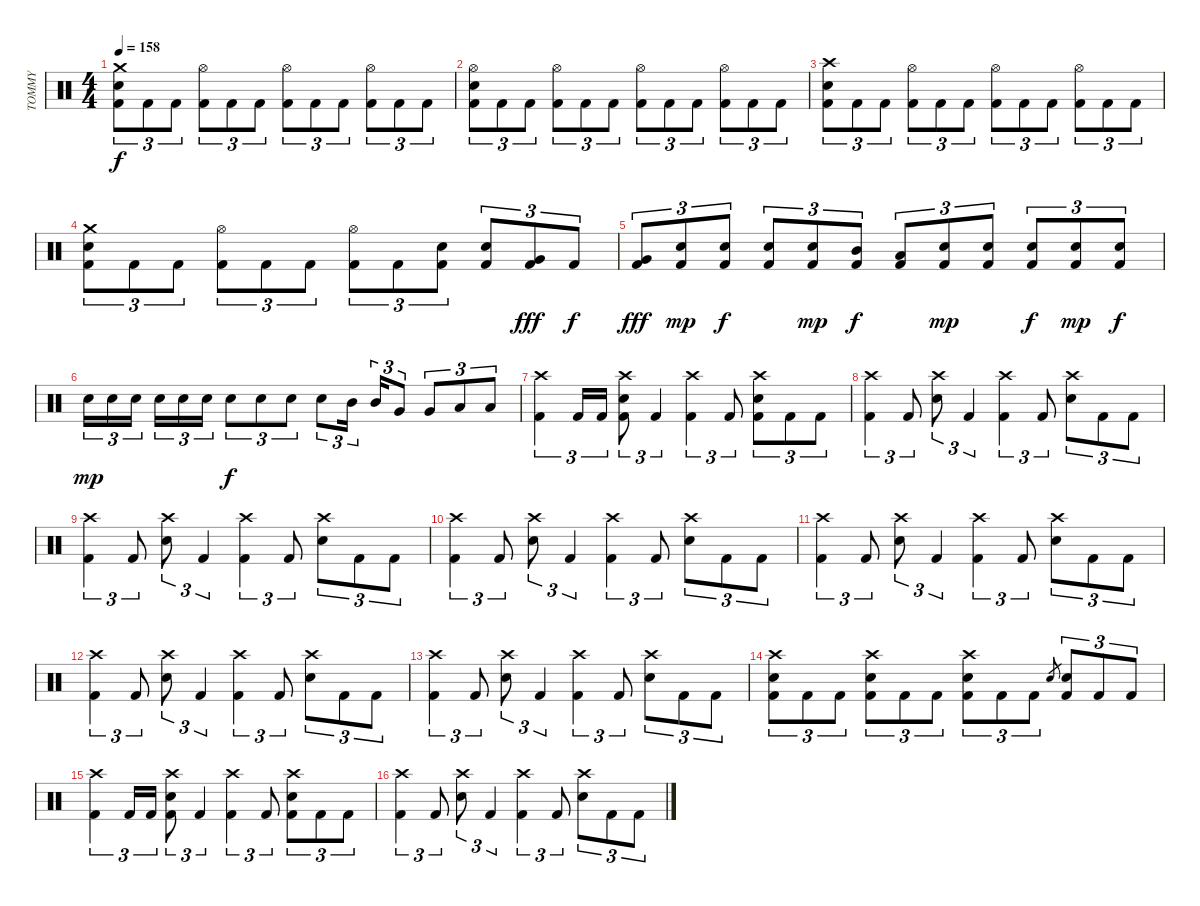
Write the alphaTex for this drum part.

\track ("TOMMY" "TOMMY") {instrument percussion}
\staff {score}
\articulation defaults
\ts (4 4)
\tempo 158
\clef neutral
\ks c
("Snare (hit) 2" "Kick (hit) 2" "Crash medium (hit)").8{tu (3 2) dy f} "Kick (hit) 2".8{tu (3 2)} "Kick (hit) 2".8{tu (3 2)} ("Kick (hit) 2" "Hi-Hat (open)").8{tu (3 2)} "Kick (hit) 2".8{tu (3 2)} "Kick (hit) 2".8{tu (3 2)} ("Kick (hit) 2" "Hi-Hat (open)").8{tu (3 2)} "Kick (hit) 2".8{tu (3 2)} "Kick (hit) 2".8{tu (3 2)} ("Kick (hit) 2" "Hi-Hat (open)").8{tu (3 2)} "Kick (hit) 2".8{tu (3 2)} "Kick (hit) 2".8{tu (3 2)} |
("Snare (hit) 2" "Kick (hit) 2" "Hi-Hat (open)").8{tu (3 2)} "Kick (hit) 2".8{tu (3 2)} "Kick (hit) 2".8{tu (3 2)} ("Kick (hit) 2" "Hi-Hat (open)").8{tu (3 2)} "Kick (hit) 2".8{tu (3 2)} "Kick (hit) 2".8{tu (3 2)} ("Kick (hit) 2" "Hi-Hat (open)").8{tu (3 2)} "Kick (hit) 2".8{tu (3 2)} "Kick (hit) 2".8{tu (3 2)} ("Kick (hit) 2" "Hi-Hat (open)").8{tu (3 2)} "Kick (hit) 2".8{tu (3 2)} "Kick (hit) 2".8{tu (3 2)} |
("Snare (hit) 2" "Kick (hit) 2" "Crash high (hit)").8{tu (3 2)} "Kick (hit) 2".8{tu (3 2)} "Kick (hit) 2".8{tu (3 2)} ("Kick (hit) 2" "Hi-Hat (open)").8{tu (3 2)} "Kick (hit) 2".8{tu (3 2)} "Kick (hit) 2".8{tu (3 2)} ("Kick (hit) 2" "Hi-Hat (open)").8{tu (3 2)} "Kick (hit) 2".8{tu (3 2)} "Kick (hit) 2".8{tu (3 2)} ("Kick (hit) 2" "Hi-Hat (open)").8{tu (3 2)} "Kick (hit) 2".8{tu (3 2)} "Kick (hit) 2".8{tu (3 2)} |
("Snare (hit) 2" "Kick (hit) 2" "Crash medium (hit)").8{tu (3 2)} "Kick (hit) 2".8{tu (3 2)} "Kick (hit) 2".8{tu (3 2)} ("Kick (hit) 2" "Hi-Hat (open)").8{tu (3 2)} "Kick (hit) 2".8{tu (3 2)} "Kick (hit) 2".8{tu (3 2)} ("Kick (hit) 2" "Hi-Hat (open)").8{tu (3 2)} "Kick (hit) 2".8{tu (3 2)} ("Snare (hit) 2" "Kick (hit) 2").8{tu (3 2)} ("Snare (hit) 2" "Kick (hit) 2").8{tu (3 2)} ("Kick (hit) 2" "Very Low Tom (hit)").8{tu (3 2) dy fff} "Kick (hit) 2".8{tu (3 2) dy f} |
("Kick (hit) 2" "Very Low Tom (hit)").8{tu (3 2) dy fff} ("Snare (hit) 2" "Kick (hit) 2").8{tu (3 2) dy mp} ("Snare (hit) 2" "Kick (hit) 2").8{tu (3 2) dy f} ("Snare (hit) 2" "Kick (hit) 2").8{tu (3 2)} ("Snare (hit) 2" "Kick (hit) 2").8{tu (3 2) dy mp} ("Kick (hit) 2" "Mid Tom (hit)").8{tu (3 2) dy f} ("Kick (hit) 2" "Low Floor Tom (hit)").8{tu (3 2)} ("Snare (hit) 2" "Kick (hit) 2").8{tu (3 2) dy mp} ("Snare (hit) 2" "Kick (hit) 2").8{tu (3 2)} ("Snare (hit) 2" "Kick (hit) 2").8{tu (3 2) dy f} ("Snare (hit) 2" "Kick (hit) 2").8{tu (3 2) dy mp} ("Snare (hit) 2" "Kick (hit) 2").8{tu (3 2) dy f} |
"Snare (hit) 2".16{tu (3 2) dy mp} "Snare (hit) 2".16{tu (3 2)} "Snare (hit) 2".16{tu (3 2)} "Snare (hit) 2".16{tu (3 2)} "Snare (hit) 2".16{tu (3 2)} "Snare (hit) 2".16{tu (3 2)} "Snare (hit) 2".8{tu (3 2) dy f} "Snare (hit) 2".8{tu (3 2)} "Snare (hit) 2".8{tu (3 2)} "Snare (hit) 2".8{tu (3 2)} "Mid Tom (hit)".16{tu (3 2)} "Mid Tom (hit)".16{tu (3 2)} "Very Low Tom (hit)".8{tu (3 2)} "Very Low Tom (hit)".8{tu (3 2)} "Low Floor Tom (hit)".8{tu (3 2)} "Low Floor Tom (hit)".8{tu (3 2)} |
("Kick (hit) 2" "Crash high (hit)").4{tu (3 2)} "Kick (hit) 2".16{tu (3 2)} "Kick (hit) 2".16{tu (3 2)} ("Snare (hit) 2" "Kick (hit) 2" "Crash high (hit)").8{tu (3 2)} "Kick (hit) 2".4{tu (3 2)} ("Kick (hit) 2" "Crash high (hit)").4{tu (3 2)} "Kick (hit) 2".8{tu (3 2)} ("Snare (hit) 2" "Kick (hit) 2" "Crash high (hit)").8{tu (3 2)} "Kick (hit) 2".8{tu (3 2)} "Kick (hit) 2".8{tu (3 2)} |
("Kick (hit) 2" "Crash high (hit)").4{tu (3 2)} "Kick (hit) 2".8{tu (3 2)} ("Snare (hit) 2" "Crash high (hit)").8{tu (3 2)} "Kick (hit) 2".4{tu (3 2)} ("Kick (hit) 2" "Crash high (hit)").4{tu (3 2)} "Kick (hit) 2".8{tu (3 2)} ("Snare (hit) 2" "Crash high (hit)").8{tu (3 2)} "Kick (hit) 2".8{tu (3 2)} "Kick (hit) 2".8{tu (3 2)} |
("Kick (hit) 2" "Crash high (hit)").4{tu (3 2)} "Kick (hit) 2".8{tu (3 2)} ("Snare (hit) 2" "Crash high (hit)").8{tu (3 2)} "Kick (hit) 2".4{tu (3 2)} ("Kick (hit) 2" "Crash high (hit)").4{tu (3 2)} "Kick (hit) 2".8{tu (3 2)} ("Snare (hit) 2" "Crash high (hit)").8{tu (3 2)} "Kick (hit) 2".8{tu (3 2)} "Kick (hit) 2".8{tu (3 2)} |
("Kick (hit) 2" "Crash high (hit)").4{tu (3 2)} "Kick (hit) 2".8{tu (3 2)} ("Snare (hit) 2" "Crash high (hit)").8{tu (3 2)} "Kick (hit) 2".4{tu (3 2)} ("Kick (hit) 2" "Crash high (hit)").4{tu (3 2)} "Kick (hit) 2".8{tu (3 2)} ("Snare (hit) 2" "Crash high (hit)").8{tu (3 2)} "Kick (hit) 2".8{tu (3 2)} "Kick (hit) 2".8{tu (3 2)} |
("Kick (hit) 2" "Crash high (hit)").4{tu (3 2)} "Kick (hit) 2".8{tu (3 2)} ("Snare (hit) 2" "Crash high (hit)").8{tu (3 2)} "Kick (hit) 2".4{tu (3 2)} ("Kick (hit) 2" "Crash high (hit)").4{tu (3 2)} "Kick (hit) 2".8{tu (3 2)} ("Snare (hit) 2" "Crash high (hit)").8{tu (3 2)} "Kick (hit) 2".8{tu (3 2)} "Kick (hit) 2".8{tu (3 2)} |
("Kick (hit) 2" "Crash high (hit)").4{tu (3 2)} "Kick (hit) 2".8{tu (3 2)} ("Snare (hit) 2" "Crash high (hit)").8{tu (3 2)} "Kick (hit) 2".4{tu (3 2)} ("Kick (hit) 2" "Crash high (hit)").4{tu (3 2)} "Kick (hit) 2".8{tu (3 2)} ("Snare (hit) 2" "Crash high (hit)").8{tu (3 2)} "Kick (hit) 2".8{tu (3 2)} "Kick (hit) 2".8{tu (3 2)} |
("Kick (hit) 2" "Crash high (hit)").4{tu (3 2)} "Kick (hit) 2".8{tu (3 2)} ("Snare (hit) 2" "Crash high (hit)").8{tu (3 2)} "Kick (hit) 2".4{tu (3 2)} ("Kick (hit) 2" "Crash high (hit)").4{tu (3 2)} "Kick (hit) 2".8{tu (3 2)} ("Snare (hit) 2" "Crash high (hit)").8{tu (3 2)} "Kick (hit) 2".8{tu (3 2)} "Kick (hit) 2".8{tu (3 2)} |
("Snare (hit) 2" "Kick (hit) 2" "Crash high (hit)").8{tu (3 2)} "Kick (hit) 2".8{tu (3 2)} "Kick (hit) 2".8{tu (3 2)} ("Snare (hit) 2" "Kick (hit) 2" "Crash high (hit)").8{tu (3 2)} "Kick (hit) 2".8{tu (3 2)} "Kick (hit) 2".8{tu (3 2)} ("Snare (hit) 2" "Kick (hit) 2" "Crash high (hit)").8{tu (3 2)} "Kick (hit) 2".8{tu (3 2)} "Kick (hit) 2".8{tu (3 2)} "Snare (hit) 2".8{gr} ("Snare (hit) 2" "Kick (hit) 2").8{tu (3 2)} "Kick (hit) 2".8{tu (3 2)} "Kick (hit) 2".8{tu (3 2)} |
("Kick (hit) 2" "Crash high (hit)").4{tu (3 2)} "Kick (hit) 2".16{tu (3 2)} "Kick (hit) 2".16{tu (3 2)} ("Snare (hit) 2" "Kick (hit) 2" "Crash high (hit)").8{tu (3 2)} "Kick (hit) 2".4{tu (3 2)} ("Kick (hit) 2" "Crash high (hit)").4{tu (3 2)} "Kick (hit) 2".8{tu (3 2)} ("Snare (hit) 2" "Kick (hit) 2" "Crash high (hit)").8{tu (3 2)} "Kick (hit) 2".8{tu (3 2)} "Kick (hit) 2".8{tu (3 2)} |
("Kick (hit) 2" "Crash high (hit)").4{tu (3 2)} "Kick (hit) 2".8{tu (3 2)} ("Snare (hit) 2" "Crash high (hit)").8{tu (3 2)} "Kick (hit) 2".4{tu (3 2)} ("Kick (hit) 2" "Crash high (hit)").4{tu (3 2)} "Kick (hit) 2".8{tu (3 2)} ("Snare (hit) 2" "Crash high (hit)").8{tu (3 2)} "Kick (hit) 2".8{tu (3 2)} "Kick (hit) 2".8{tu (3 2)}
